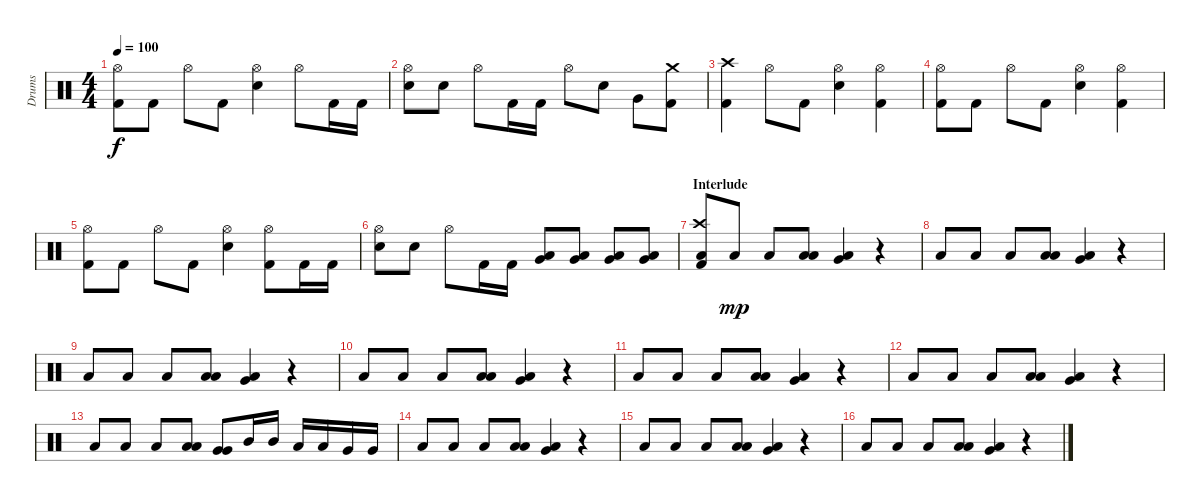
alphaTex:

\track ("Drums" "Drums") {instrument percussion}
\staff {score}
\articulation defaults
\ts (4 4)
\tempo 100
\clef neutral
\ks c
("Hi-Hat (open)" "Kick (hit) 2").8{dy f} "Kick (hit) 2".8 "Hi-Hat (open)".8 "Kick (hit) 2".8 ("Hi-Hat (open)" "Electric Snare (hit)").4 "Hi-Hat (open)".8 "Kick (hit) 2".16 "Kick (hit) 2".16 |
("Hi-Hat (open)" "Electric Snare (hit)").8 "Electric Snare (hit)".8 "Hi-Hat (open)".8 "Kick (hit) 2".16 "Kick (hit) 2".16 "Hi-Hat (open)".8 "Electric Snare (hit)".8 "Very Low Tom (hit)".8 ("Crash medium (hit)" "Kick (hit) 2").8 |
("Crash high (hit)" "Kick (hit) 2").4 "Hi-Hat (open)".8 "Kick (hit) 2".8 ("Hi-Hat (open)" "Electric Snare (hit)").4 ("Hi-Hat (open)" "Kick (hit) 2").4 |
("Hi-Hat (open)" "Kick (hit) 2").8 "Kick (hit) 2".8 "Hi-Hat (open)".8 "Kick (hit) 2".8 ("Hi-Hat (open)" "Electric Snare (hit)").4 ("Hi-Hat (open)" "Kick (hit) 2").4 |
("Hi-Hat (open)" "Kick (hit) 2").8 "Kick (hit) 2".8 "Hi-Hat (open)".8 "Kick (hit) 2".8 ("Hi-Hat (open)" "Electric Snare (hit)").4 ("Hi-Hat (open)" "Kick (hit) 2").8 "Kick (hit) 2".16 "Kick (hit) 2".16 |
("Hi-Hat (open)" "Electric Snare (hit)").8 "Electric Snare (hit)".8 "Hi-Hat (open)".8 "Kick (hit) 2".16 "Kick (hit) 2".16 ("Low Tom (hit)" "Very Low Tom (hit)").8 ("Low Tom (hit)" "Very Low Tom (hit)").8 ("Very Low Tom (hit)" "Low Floor Tom (hit)").8 ("Very Low Tom (hit)" "Low Floor Tom (hit)").8 |
\section ("" "Interlude")
("Crash high (hit)" "Low Floor Tom (hit)" "Kick (hit) 2").8 "Low Floor Tom (hit)".8{dy mp} "Low Floor Tom (hit)".8 ("Low Floor Tom (hit)" "Low Floor Tom (hit)").8 ("Very Low Tom (hit)" "Low Floor Tom (hit)").4 r.4 |
"Low Floor Tom (hit)".8 "Low Floor Tom (hit)".8 "Low Floor Tom (hit)".8 ("Low Floor Tom (hit)" "Low Floor Tom (hit)").8 ("Very Low Tom (hit)" "Low Floor Tom (hit)").4 r.4 |
"Low Floor Tom (hit)".8 "Low Floor Tom (hit)".8 "Low Floor Tom (hit)".8 ("Low Floor Tom (hit)" "Low Floor Tom (hit)").8 ("Very Low Tom (hit)" "Low Floor Tom (hit)").4 r.4 |
"Low Floor Tom (hit)".8 "Low Floor Tom (hit)".8 "Low Floor Tom (hit)".8 ("Low Floor Tom (hit)" "Low Floor Tom (hit)").8 ("Very Low Tom (hit)" "Low Floor Tom (hit)").4 r.4 |
"Low Floor Tom (hit)".8 "Low Floor Tom (hit)".8 "Low Floor Tom (hit)".8 ("Low Floor Tom (hit)" "Low Floor Tom (hit)").8 ("Very Low Tom (hit)" "Low Floor Tom (hit)").4 r.4 |
"Low Floor Tom (hit)".8 "Low Floor Tom (hit)".8 "Low Floor Tom (hit)".8 ("Low Floor Tom (hit)" "Low Floor Tom (hit)").8 ("Very Low Tom (hit)" "Low Floor Tom (hit)").4 r.4 |
"Low Floor Tom (hit)".8 "Low Floor Tom (hit)".8 "Low Floor Tom (hit)".8 ("Low Floor Tom (hit)" "Low Floor Tom (hit)").8 ("Very Low Tom (hit)" "Very Low Tom (hit)").8 "Mid Tom (hit)".16 "Mid Tom (hit)".16 "Low Tom (hit)".16 "Low Tom (hit)".16 "Very Low Tom (hit)".16 "Very Low Tom (hit)".16 |
"Low Floor Tom (hit)".8 "Low Floor Tom (hit)".8 "Low Floor Tom (hit)".8 ("Low Floor Tom (hit)" "Low Floor Tom (hit)").8 ("Very Low Tom (hit)" "Low Floor Tom (hit)").4 r.4 |
"Low Floor Tom (hit)".8 "Low Floor Tom (hit)".8 "Low Floor Tom (hit)".8 ("Low Floor Tom (hit)" "Low Floor Tom (hit)").8 ("Very Low Tom (hit)" "Low Floor Tom (hit)").4 r.4 |
"Low Floor Tom (hit)".8 "Low Floor Tom (hit)".8 "Low Floor Tom (hit)".8 ("Low Floor Tom (hit)" "Low Floor Tom (hit)").8 ("Very Low Tom (hit)" "Low Floor Tom (hit)").4 r.4
